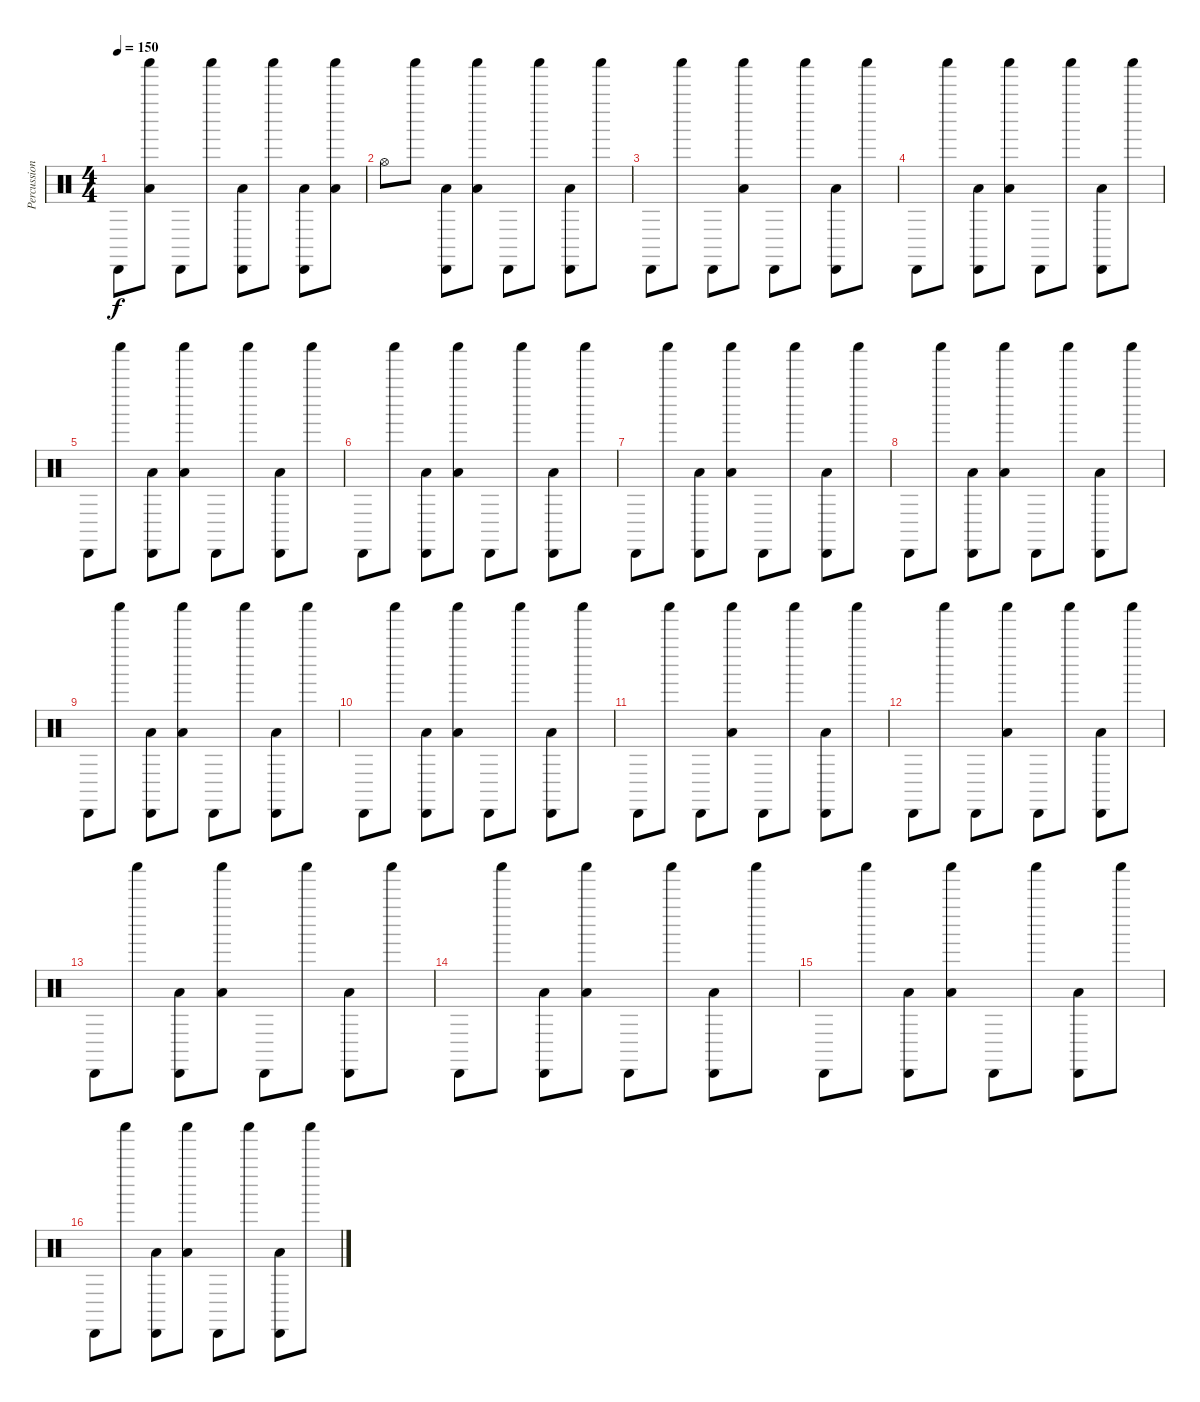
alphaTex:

\track ("Percussion" "Percussion") {instrument percussion}
\staff
\articulation defaults
\ts (4 4)
\tempo 150
\clef neutral
\ks c "Cabasa (hit)".8{dy f}
("Shaker (hit)" "Low Floor Tom (hit)").8 "Cabasa (hit)".8 "Shaker (hit)".8 ("Cabasa (hit)" "Low Floor Tom (hit)").8 "Shaker (hit)".8 ("Cabasa (hit)" "Low Floor Tom (hit)").8 ("Shaker (hit)" "Low Floor Tom (hit)").8 |
"Hi-Hat (open)".8 "Shaker (hit)".8 ("Cabasa (hit)" "Low Floor Tom (hit)").8 ("Shaker (hit)" "Low Floor Tom (hit)").8 "Cabasa (hit)".8 "Shaker (hit)".8 ("Cabasa (hit)" "Low Floor Tom (hit)").8 "Shaker (hit)".8 |
"Cabasa (hit)".8 "Shaker (hit)".8 "Cabasa (hit)".8 ("Shaker (hit)" "Low Floor Tom (hit)").8 "Cabasa (hit)".8 "Shaker (hit)".8 ("Cabasa (hit)" "Low Floor Tom (hit)").8 "Shaker (hit)".8 |
"Cabasa (hit)".8 "Shaker (hit)".8 ("Cabasa (hit)" "Low Floor Tom (hit)").8 ("Shaker (hit)" "Low Floor Tom (hit)").8 "Cabasa (hit)".8 "Shaker (hit)".8 ("Cabasa (hit)" "Low Floor Tom (hit)").8 "Shaker (hit)".8 |
"Cabasa (hit)".8 "Shaker (hit)".8 ("Cabasa (hit)" "Low Floor Tom (hit)").8 ("Shaker (hit)" "Low Floor Tom (hit)").8 "Cabasa (hit)".8 "Shaker (hit)".8 ("Cabasa (hit)" "Low Floor Tom (hit)").8 "Shaker (hit)".8 |
"Cabasa (hit)".8 "Shaker (hit)".8 ("Cabasa (hit)" "Low Floor Tom (hit)").8 ("Shaker (hit)" "Low Floor Tom (hit)").8 "Cabasa (hit)".8 "Shaker (hit)".8 ("Cabasa (hit)" "Low Floor Tom (hit)").8 "Shaker (hit)".8 |
"Cabasa (hit)".8 "Shaker (hit)".8 ("Cabasa (hit)" "Low Floor Tom (hit)").8 ("Shaker (hit)" "Low Floor Tom (hit)").8 "Cabasa (hit)".8 "Shaker (hit)".8 ("Cabasa (hit)" "Low Floor Tom (hit)").8 "Shaker (hit)".8 |
"Cabasa (hit)".8 "Shaker (hit)".8 ("Cabasa (hit)" "Low Floor Tom (hit)").8 ("Shaker (hit)" "Low Floor Tom (hit)").8 "Cabasa (hit)".8 "Shaker (hit)".8 ("Cabasa (hit)" "Low Floor Tom (hit)").8 "Shaker (hit)".8 |
"Cabasa (hit)".8 "Shaker (hit)".8 ("Cabasa (hit)" "Low Floor Tom (hit)").8 ("Shaker (hit)" "Low Floor Tom (hit)").8 "Cabasa (hit)".8 "Shaker (hit)".8 ("Cabasa (hit)" "Low Floor Tom (hit)").8 "Shaker (hit)".8 |
"Cabasa (hit)".8 "Shaker (hit)".8 ("Cabasa (hit)" "Low Floor Tom (hit)").8 ("Shaker (hit)" "Low Floor Tom (hit)").8 "Cabasa (hit)".8 "Shaker (hit)".8 ("Cabasa (hit)" "Low Floor Tom (hit)").8 "Shaker (hit)".8 |
"Cabasa (hit)".8 "Shaker (hit)".8 "Cabasa (hit)".8 ("Shaker (hit)" "Low Floor Tom (hit)").8 "Cabasa (hit)".8 "Shaker (hit)".8 ("Cabasa (hit)" "Low Floor Tom (hit)").8 "Shaker (hit)".8 |
"Cabasa (hit)".8 "Shaker (hit)".8 "Cabasa (hit)".8 ("Shaker (hit)" "Low Floor Tom (hit)").8 "Cabasa (hit)".8 "Shaker (hit)".8 ("Cabasa (hit)" "Low Floor Tom (hit)").8 "Shaker (hit)".8 |
"Cabasa (hit)".8 "Shaker (hit)".8 ("Cabasa (hit)" "Low Floor Tom (hit)").8 ("Shaker (hit)" "Low Floor Tom (hit)").8 "Cabasa (hit)".8 "Shaker (hit)".8 ("Cabasa (hit)" "Low Floor Tom (hit)").8 "Shaker (hit)".8 |
"Cabasa (hit)".8 "Shaker (hit)".8 ("Cabasa (hit)" "Low Floor Tom (hit)").8 ("Shaker (hit)" "Low Floor Tom (hit)").8 "Cabasa (hit)".8 "Shaker (hit)".8 ("Cabasa (hit)" "Low Floor Tom (hit)").8 "Shaker (hit)".8 |
"Cabasa (hit)".8 "Shaker (hit)".8 ("Cabasa (hit)" "Low Floor Tom (hit)").8 ("Shaker (hit)" "Low Floor Tom (hit)").8 "Cabasa (hit)".8 "Shaker (hit)".8 ("Cabasa (hit)" "Low Floor Tom (hit)").8 "Shaker (hit)".8 |
"Cabasa (hit)".8 "Shaker (hit)".8 ("Cabasa (hit)" "Low Floor Tom (hit)").8 ("Shaker (hit)" "Low Floor Tom (hit)").8 "Cabasa (hit)".8 "Shaker (hit)".8 ("Cabasa (hit)" "Low Floor Tom (hit)").8 "Shaker (hit)".8
